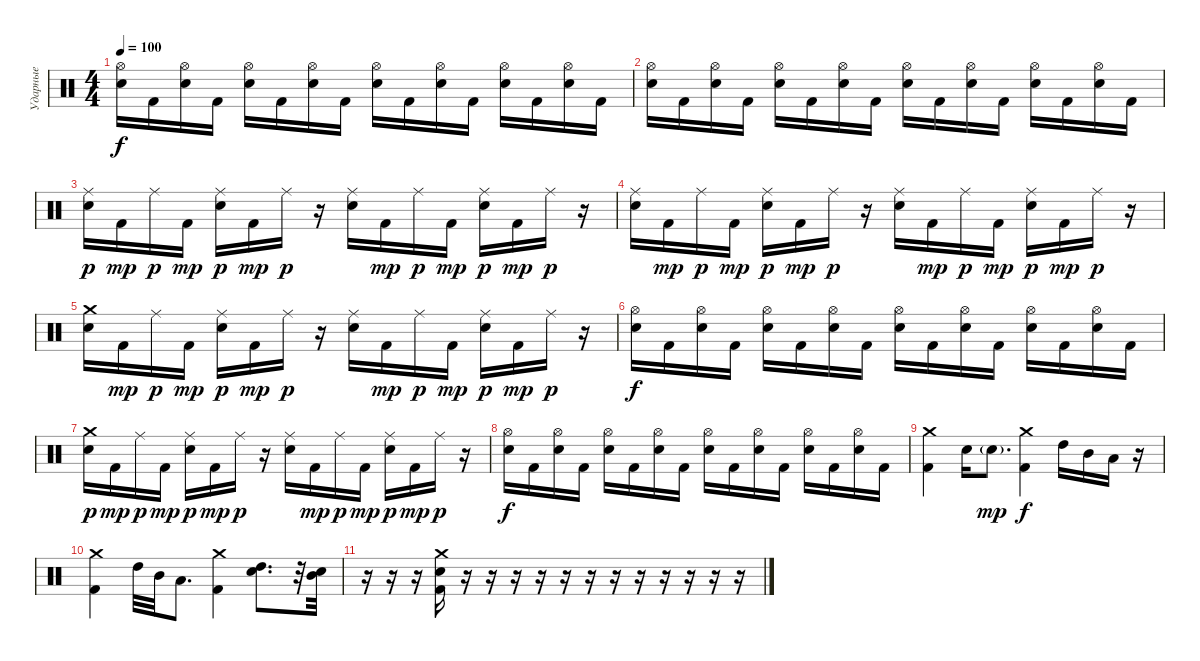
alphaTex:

\track ("Ударные" "Ударные") {instrument percussion}
\staff {score}
\articulation defaults
\ts (4 4)
\tempo 100
\clef neutral
\ks c
("Hi-Hat (open)" "Electric Snare (hit)").16{dy f} "Kick (hit) 2".16 ("Hi-Hat (open)" "Electric Snare (hit)").16 "Kick (hit) 2".16 ("Hi-Hat (open)" "Electric Snare (hit)").16 "Kick (hit) 2".16 ("Hi-Hat (open)" "Electric Snare (hit)").16 "Kick (hit) 2".16 ("Hi-Hat (open)" "Electric Snare (hit)").16 "Kick (hit) 2".16 ("Hi-Hat (open)" "Electric Snare (hit)").16 "Kick (hit) 2".16 ("Hi-Hat (open)" "Electric Snare (hit)").16 "Kick (hit) 2".16 ("Hi-Hat (open)" "Electric Snare (hit)").16 "Kick (hit) 2".16 |
("Hi-Hat (open)" "Electric Snare (hit)").16 "Kick (hit) 2".16 ("Hi-Hat (open)" "Electric Snare (hit)").16 "Kick (hit) 2".16 ("Hi-Hat (open)" "Electric Snare (hit)").16 "Kick (hit) 2".16 ("Hi-Hat (open)" "Electric Snare (hit)").16 "Kick (hit) 2".16 ("Hi-Hat (open)" "Electric Snare (hit)").16 "Kick (hit) 2".16 ("Hi-Hat (open)" "Electric Snare (hit)").16 "Kick (hit) 2".16 ("Hi-Hat (open)" "Electric Snare (hit)").16 "Kick (hit) 2".16 ("Hi-Hat (open)" "Electric Snare (hit)").16 "Kick (hit) 2".16 |
("Electric Snare (hit)" "Ride (middle)").16{dy p} "Kick (hit) 2".16{dy mp} "Ride (middle)".16{dy p} "Kick (hit) 2".16{dy mp} ("Electric Snare (hit)" "Ride (middle)").16{dy p} "Kick (hit) 2".16{dy mp} "Ride (middle)".16{dy p} r.16 ("Electric Snare (hit)" "Ride (middle)").16 "Kick (hit) 2".16{dy mp} "Ride (middle)".16{dy p} "Kick (hit) 2".16{dy mp} ("Electric Snare (hit)" "Ride (middle)").16{dy p} "Kick (hit) 2".16{dy mp} "Ride (middle)".16{dy p} r.16 |
("Electric Snare (hit)" "Ride (middle)").16 "Kick (hit) 2".16{dy mp} "Ride (middle)".16{dy p} "Kick (hit) 2".16{dy mp} ("Electric Snare (hit)" "Ride (middle)").16{dy p} "Kick (hit) 2".16{dy mp} "Ride (middle)".16{dy p} r.16 ("Electric Snare (hit)" "Ride (middle)").16 "Kick (hit) 2".16{dy mp} "Ride (middle)".16{dy p} "Kick (hit) 2".16{dy mp} ("Electric Snare (hit)" "Ride (middle)").16{dy p} "Kick (hit) 2".16{dy mp} "Ride (middle)".16{dy p} r.16 |
("Electric Snare (hit)" "Crash medium (hit)").16 "Kick (hit) 2".16{dy mp} "Ride (middle)".16{dy p} "Kick (hit) 2".16{dy mp} ("Electric Snare (hit)" "Ride (middle)").16{dy p} "Kick (hit) 2".16{dy mp} "Ride (middle)".16{dy p} r.16 ("Electric Snare (hit)" "Ride (middle)").16 "Kick (hit) 2".16{dy mp} "Ride (middle)".16{dy p} "Kick (hit) 2".16{dy mp} ("Electric Snare (hit)" "Ride (middle)").16{dy p} "Kick (hit) 2".16{dy mp} "Ride (middle)".16{dy p} r.16 |
("Hi-Hat (open)" "Electric Snare (hit)").16{dy f} "Kick (hit) 2".16 ("Hi-Hat (open)" "Electric Snare (hit)").16 "Kick (hit) 2".16 ("Hi-Hat (open)" "Electric Snare (hit)").16 "Kick (hit) 2".16 ("Hi-Hat (open)" "Electric Snare (hit)").16 "Kick (hit) 2".16 ("Hi-Hat (open)" "Electric Snare (hit)").16 "Kick (hit) 2".16 ("Hi-Hat (open)" "Electric Snare (hit)").16 "Kick (hit) 2".16 ("Hi-Hat (open)" "Electric Snare (hit)").16 "Kick (hit) 2".16 ("Hi-Hat (open)" "Electric Snare (hit)").16 "Kick (hit) 2".16 |
("Electric Snare (hit)" "Crash medium (hit)").16{dy p} "Kick (hit) 2".16{dy mp} "Ride (middle)".16{dy p} "Kick (hit) 2".16{dy mp} ("Electric Snare (hit)" "Ride (middle)").16{dy p} "Kick (hit) 2".16{dy mp} "Ride (middle)".16{dy p} r.16 ("Electric Snare (hit)" "Ride (middle)").16 "Kick (hit) 2".16{dy mp} "Ride (middle)".16{dy p} "Kick (hit) 2".16{dy mp} ("Electric Snare (hit)" "Ride (middle)").16{dy p} "Kick (hit) 2".16{dy mp} "Ride (middle)".16{dy p} r.16 |
("Hi-Hat (open)" "Electric Snare (hit)").16{dy f} "Kick (hit) 2".16 ("Hi-Hat (open)" "Electric Snare (hit)").16 "Kick (hit) 2".16 ("Hi-Hat (open)" "Electric Snare (hit)").16 "Kick (hit) 2".16 ("Hi-Hat (open)" "Electric Snare (hit)").16 "Kick (hit) 2".16 ("Hi-Hat (open)" "Electric Snare (hit)").16 "Kick (hit) 2".16 ("Hi-Hat (open)" "Electric Snare (hit)").16 "Kick (hit) 2".16 ("Hi-Hat (open)" "Electric Snare (hit)").16 "Kick (hit) 2".16 ("Hi-Hat (open)" "Electric Snare (hit)").16 "Kick (hit) 2".16 |
("Crash medium (hit)" "Kick (hit) 2").4 "Electric Snare (hit)".16 "Electric Snare (hit)"{g}.8{d dy mp} ("Crash medium (hit)" "Kick (hit) 2").4{dy f} "High Tom (hit)".16 "Mid Tom (hit)".16 "Low Tom (hit)".16 r.16 |
("Crash medium (hit)" "Kick (hit) 2").4 "High Tom (hit)".32 "Mid Tom (hit)".32 "Low Tom (hit)".8{d} ("Crash medium (hit)" "Kick (hit) 2").4 ("High Tom (hit)" "Electric Snare (hit)").8{d} r.32 ("Mid Tom (hit)" "Electric Snare (hit)").32 |
r.16 r.16 r.16 ("Crash medium (hit)" "Electric Snare (hit)" "Kick (hit) 2").16 r.16 r.16 r.16 r.16 r.16 r.16 r.16 r.16 r.16 r.16 r.16 r.16
